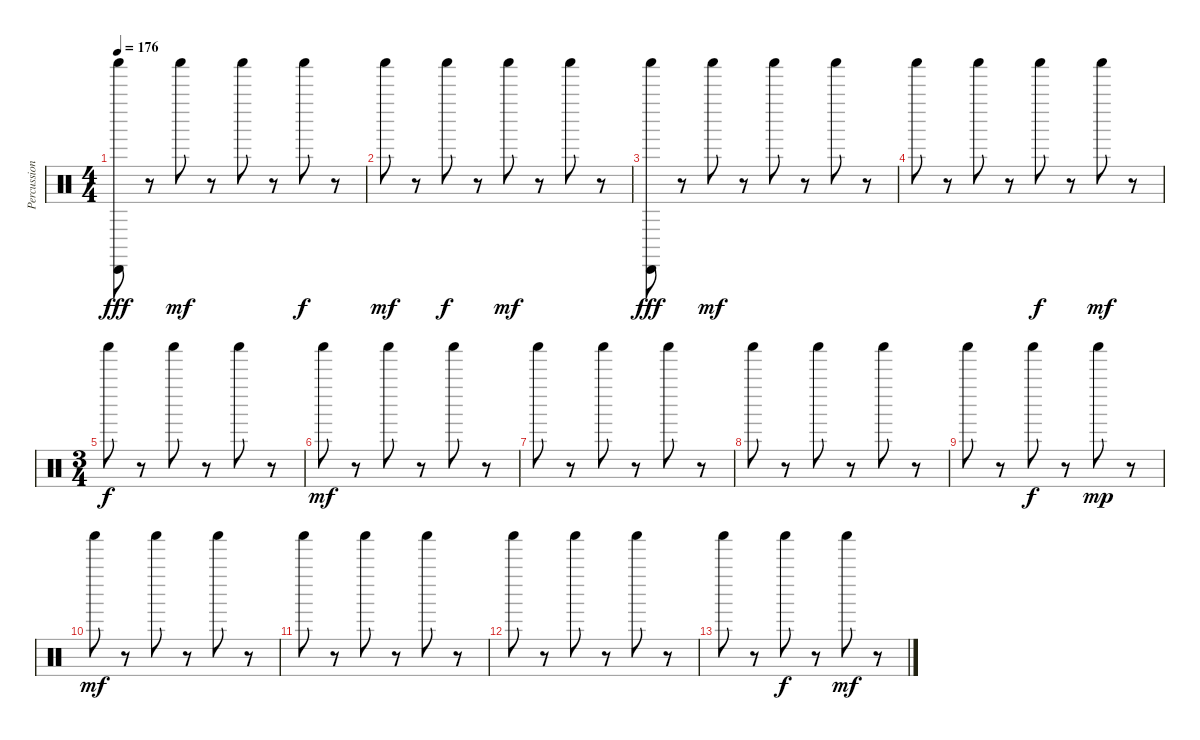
\track ("Percussion" "Percussion") {instrument percussion}
\staff {score}
\articulation defaults
\ts (4 4)
\tempo 176
\clef neutral
\ks c
("Shaker (hit)" "Cabasa (hit)").8{dy fff} r.8 "Shaker (hit)".8{dy mf} r.8 "Shaker (hit)".8 r.8 "Shaker (hit)".8{dy f} r.8 |
"Shaker (hit)".8{dy mf} r.8 "Shaker (hit)".8{dy f} r.8 "Shaker (hit)".8{dy mf} r.8 "Shaker (hit)".8 r.8 |
("Shaker (hit)" "Cabasa (hit)").8{dy fff} r.8 "Shaker (hit)".8{dy mf} r.8 "Shaker (hit)".8 r.8 "Shaker (hit)".8 r.8 |
"Shaker (hit)".8 r.8 "Shaker (hit)".8 r.8 "Shaker (hit)".8{dy f} r.8 "Shaker (hit)".8{dy mf} r.8 |
\ts (3 4)
"Shaker (hit)".8{dy f} r.8 "Shaker (hit)".8 r.8 "Shaker (hit)".8 r.8 |
"Shaker (hit)".8{dy mf} r.8 "Shaker (hit)".8 r.8 "Shaker (hit)".8 r.8 |
"Shaker (hit)".8 r.8 "Shaker (hit)".8 r.8 "Shaker (hit)".8 r.8 |
"Shaker (hit)".8 r.8 "Shaker (hit)".8 r.8 "Shaker (hit)".8 r.8 |
"Shaker (hit)".8 r.8 "Shaker (hit)".8{dy f} r.8 "Shaker (hit)".8{dy mp} r.8 |
"Shaker (hit)".8{dy mf} r.8 "Shaker (hit)".8 r.8 "Shaker (hit)".8 r.8 |
"Shaker (hit)".8 r.8 "Shaker (hit)".8 r.8 "Shaker (hit)".8 r.8 |
"Shaker (hit)".8 r.8 "Shaker (hit)".8 r.8 "Shaker (hit)".8 r.8 |
"Shaker (hit)".8{volume 10} r.8 "Shaker (hit)".8{dy f volume 8} r.8 "Shaker (hit)".8{dy mf volume 6} r.8
